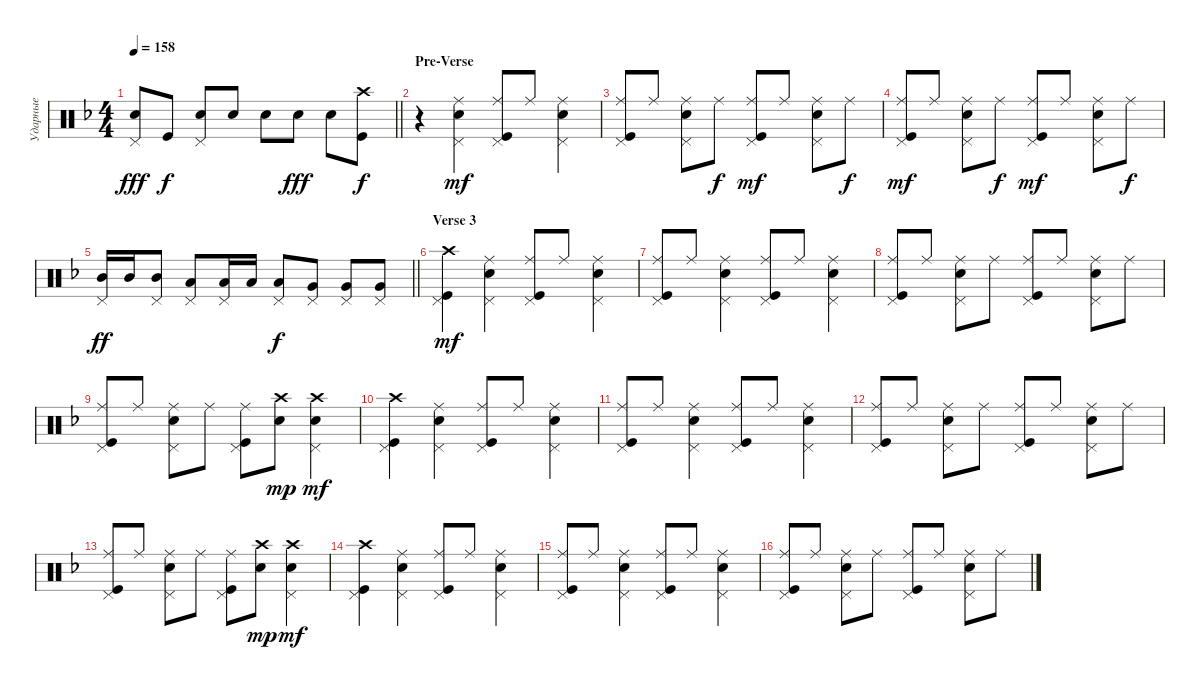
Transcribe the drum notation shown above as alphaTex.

\track ("Ударные" "Ударные") {instrument percussion}
\staff {score}
\articulation defaults
\ts (4 4)
\tempo 158
\clef neutral
\barLineRight lightlight
\ks dminor
("Snare (hit) 2" "Pedal Hi-Hat (hit)").8{dy fff} "Kick (hit)".8{dy f} ("Snare (hit) 2" "Pedal Hi-Hat (hit)").8 "Snare (hit) 2".8 "Snare (hit) 2".8 "Snare (hit) 2".8{dy fff} "Snare (hit) 2".8 ("Kick (hit)" "Crash high (hit)").8{dy f} |
\section ("" "Pre-Verse")
r.4 ("Snare (hit) 2" "Pedal Hi-Hat (hit)" "Ride (middle)").4{dy mf} ("Ride (middle)" "Kick (hit)" "Pedal Hi-Hat (hit)").8 "Ride (middle)".8 ("Snare (hit) 2" "Pedal Hi-Hat (hit)" "Ride (middle)").4 |
("Ride (middle)" "Kick (hit)" "Pedal Hi-Hat (hit)").8 "Ride (middle)".8 ("Snare (hit) 2" "Pedal Hi-Hat (hit)" "Ride (middle)").8 "Ride (middle)".8{dy f} ("Ride (middle)" "Kick (hit)" "Pedal Hi-Hat (hit)").8{dy mf} "Ride (middle)".8 ("Snare (hit) 2" "Pedal Hi-Hat (hit)" "Ride (middle)").8 "Ride (middle)".8{dy f} |
("Ride (middle)" "Kick (hit)" "Pedal Hi-Hat (hit)").8{dy mf} "Ride (middle)".8 ("Snare (hit) 2" "Pedal Hi-Hat (hit)" "Ride (middle)").8 "Ride (middle)".8{dy f} ("Ride (middle)" "Kick (hit)" "Pedal Hi-Hat (hit)").8{dy mf} "Ride (middle)".8 ("Snare (hit) 2" "Pedal Hi-Hat (hit)" "Ride (middle)").8 "Ride (middle)".8{dy f} |
\barLineRight lightlight
("Pedal Hi-Hat (hit)" "Mid Tom (hit)").16{dy ff} "Mid Tom (hit)".16 ("Mid Tom (hit)" "Pedal Hi-Hat (hit)").8 ("Low Tom (hit)" "Pedal Hi-Hat (hit)").8 ("Low Tom (hit)" "Pedal Hi-Hat (hit)").16 "Low Tom (hit)".16 ("Low Tom (hit)" "Pedal Hi-Hat (hit)").8{dy f} ("Very Low Tom (hit)" "Pedal Hi-Hat (hit)").8 ("Pedal Hi-Hat (hit)" "Very Low Tom (hit)").8 ("Pedal Hi-Hat (hit)" "Very Low Tom (hit)").8 |
\section ("" "Verse 3")
("Kick (hit)" "Crash high (hit)" "Pedal Hi-Hat (hit)").4{dy mf} ("Ride (middle)" "Snare (hit) 2" "Pedal Hi-Hat (hit)").4 ("Ride (middle)" "Kick (hit)" "Pedal Hi-Hat (hit)").8 "Ride (middle)".8 ("Snare (hit) 2" "Pedal Hi-Hat (hit)" "Ride (middle)").4 |
("Ride (middle)" "Kick (hit)" "Pedal Hi-Hat (hit)").8 "Ride (middle)".8 ("Snare (hit) 2" "Pedal Hi-Hat (hit)" "Ride (middle)").4 ("Ride (middle)" "Kick (hit)" "Pedal Hi-Hat (hit)").8 "Ride (middle)".8 ("Snare (hit) 2" "Pedal Hi-Hat (hit)" "Ride (middle)").4 |
("Ride (middle)" "Kick (hit)" "Pedal Hi-Hat (hit)").8 "Ride (middle)".8 ("Snare (hit) 2" "Pedal Hi-Hat (hit)" "Ride (middle)").8 "Ride (middle)".8 ("Ride (middle)" "Kick (hit)" "Pedal Hi-Hat (hit)").8 "Ride (middle)".8 ("Snare (hit) 2" "Pedal Hi-Hat (hit)" "Ride (middle)").8 "Ride (middle)".8 |
("Ride (middle)" "Kick (hit)" "Pedal Hi-Hat (hit)").8 "Ride (middle)".8 ("Snare (hit) 2" "Pedal Hi-Hat (hit)" "Ride (middle)").8 "Ride (middle)".8 ("Ride (middle)" "Kick (hit)" "Pedal Hi-Hat (hit)").8 ("Crash high (hit)" "Snare (hit) 2").8{dy mp} ("Crash high (hit)" "Snare (hit) 2" "Pedal Hi-Hat (hit)").4{dy mf} |
("Kick (hit)" "Crash high (hit)" "Pedal Hi-Hat (hit)").4 ("Ride (middle)" "Snare (hit) 2" "Pedal Hi-Hat (hit)").4 ("Ride (middle)" "Kick (hit)" "Pedal Hi-Hat (hit)").8 "Ride (middle)".8 ("Snare (hit) 2" "Pedal Hi-Hat (hit)" "Ride (middle)").4 |
("Ride (middle)" "Kick (hit)" "Pedal Hi-Hat (hit)").8 "Ride (middle)".8 ("Snare (hit) 2" "Pedal Hi-Hat (hit)" "Ride (middle)").4 ("Ride (middle)" "Kick (hit)" "Pedal Hi-Hat (hit)").8 "Ride (middle)".8 ("Snare (hit) 2" "Pedal Hi-Hat (hit)" "Ride (middle)").4 |
("Ride (middle)" "Kick (hit)" "Pedal Hi-Hat (hit)").8 "Ride (middle)".8 ("Snare (hit) 2" "Pedal Hi-Hat (hit)" "Ride (middle)").8 "Ride (middle)".8 ("Ride (middle)" "Kick (hit)" "Pedal Hi-Hat (hit)").8 "Ride (middle)".8 ("Snare (hit) 2" "Pedal Hi-Hat (hit)" "Ride (middle)").8 "Ride (middle)".8 |
("Ride (middle)" "Kick (hit)" "Pedal Hi-Hat (hit)").8 "Ride (middle)".8 ("Snare (hit) 2" "Pedal Hi-Hat (hit)" "Ride (middle)").8 "Ride (middle)".8 ("Ride (middle)" "Kick (hit)" "Pedal Hi-Hat (hit)").8 ("Crash high (hit)" "Snare (hit) 2").8{dy mp} ("Crash high (hit)" "Snare (hit) 2" "Pedal Hi-Hat (hit)").4{dy mf} |
("Kick (hit)" "Crash high (hit)" "Pedal Hi-Hat (hit)").4 ("Ride (middle)" "Snare (hit) 2" "Pedal Hi-Hat (hit)").4 ("Ride (middle)" "Kick (hit)" "Pedal Hi-Hat (hit)").8 "Ride (middle)".8 ("Snare (hit) 2" "Pedal Hi-Hat (hit)" "Ride (middle)").4 |
("Ride (middle)" "Kick (hit)" "Pedal Hi-Hat (hit)").8 "Ride (middle)".8 ("Snare (hit) 2" "Pedal Hi-Hat (hit)" "Ride (middle)").4 ("Ride (middle)" "Kick (hit)" "Pedal Hi-Hat (hit)").8 "Ride (middle)".8 ("Snare (hit) 2" "Pedal Hi-Hat (hit)" "Ride (middle)").4 |
("Ride (middle)" "Kick (hit)" "Pedal Hi-Hat (hit)").8 "Ride (middle)".8 ("Snare (hit) 2" "Pedal Hi-Hat (hit)" "Ride (middle)").8 "Ride (middle)".8 ("Ride (middle)" "Kick (hit)" "Pedal Hi-Hat (hit)").8 "Ride (middle)".8 ("Snare (hit) 2" "Pedal Hi-Hat (hit)" "Ride (middle)").8 "Ride (middle)".8
